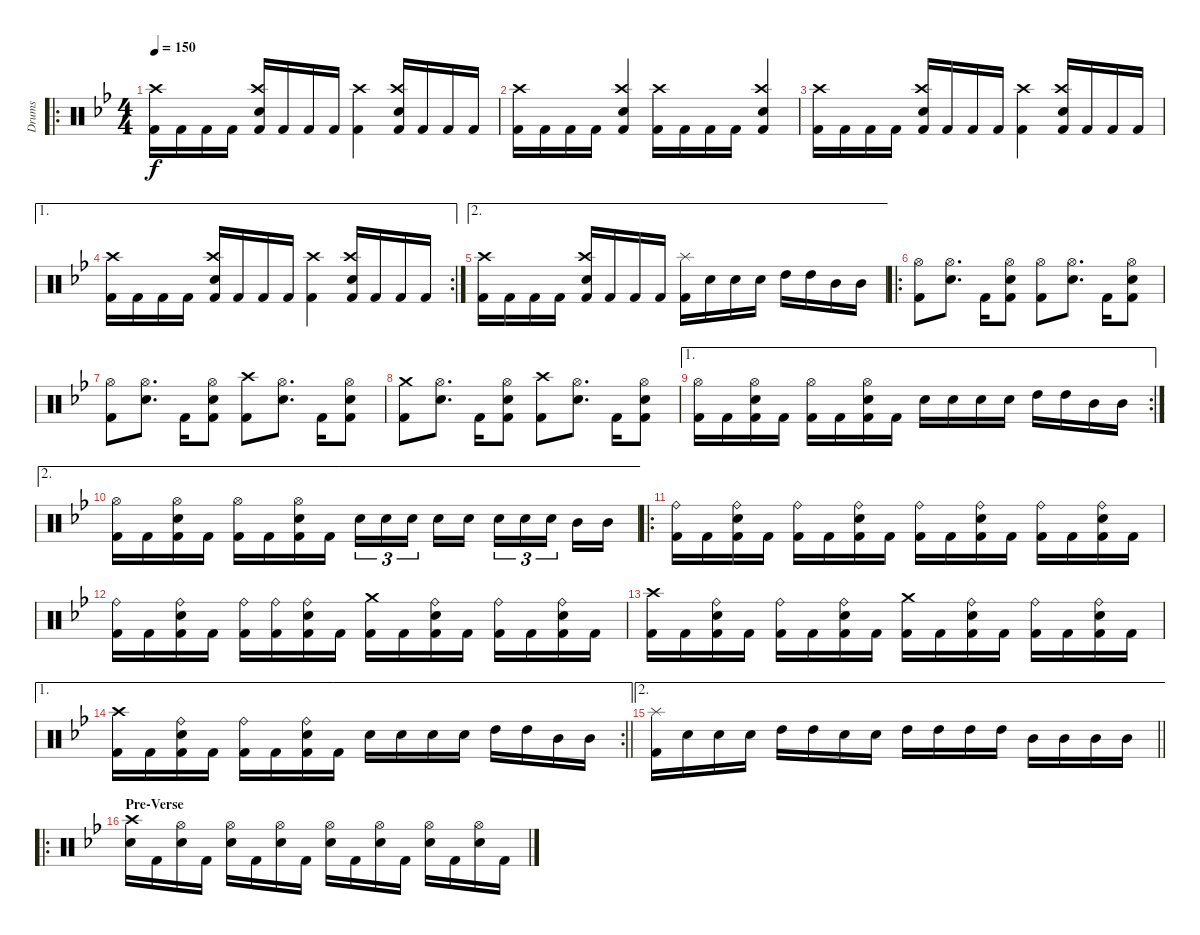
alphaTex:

\track ("Drums" "Drums") {instrument percussion}
\staff {score}
\articulation defaults
\ro
\ts (4 4)
\tempo 150
\clef neutral
\ks gminor
("Kick (hit) 2" "Crash high (hit)").16{dy f} "Kick (hit) 2".16 "Kick (hit) 2".16 "Kick (hit) 2".16 ("Kick (hit) 2" "Snare (hit) 2" "Crash high (hit)").16 "Kick (hit) 2".16 "Kick (hit) 2".16 "Kick (hit) 2".16 ("Kick (hit) 2" "Crash high (hit)").4 ("Kick (hit) 2" "Snare (hit) 2" "Crash high (hit)").16 "Kick (hit) 2".16 "Kick (hit) 2".16 "Kick (hit) 2".16 |
("Kick (hit) 2" "Crash high (hit)").16 "Kick (hit) 2".16 "Kick (hit) 2".16 "Kick (hit) 2".16 ("Kick (hit) 2" "Snare (hit) 2" "Crash high (hit)").4 ("Kick (hit) 2" "Crash high (hit)").16 "Kick (hit) 2".16 "Kick (hit) 2".16 "Kick (hit) 2".16 ("Kick (hit) 2" "Snare (hit) 2" "Crash high (hit)").4 |
("Kick (hit) 2" "Crash high (hit)").16 "Kick (hit) 2".16 "Kick (hit) 2".16 "Kick (hit) 2".16 ("Kick (hit) 2" "Snare (hit) 2" "Crash high (hit)").16 "Kick (hit) 2".16 "Kick (hit) 2".16 "Kick (hit) 2".16 ("Kick (hit) 2" "Crash high (hit)").4 ("Kick (hit) 2" "Snare (hit) 2" "Crash high (hit)").16 "Kick (hit) 2".16 "Kick (hit) 2".16 "Kick (hit) 2".16 |
\ae 1
\rc 2
("Kick (hit) 2" "Crash high (hit)").16 "Kick (hit) 2".16 "Kick (hit) 2".16 "Kick (hit) 2".16 ("Kick (hit) 2" "Snare (hit) 2" "Crash high (hit)").16 "Kick (hit) 2".16 "Kick (hit) 2".16 "Kick (hit) 2".16 ("Kick (hit) 2" "Crash high (hit)").4 ("Kick (hit) 2" "Snare (hit) 2" "Crash high (hit)").16 "Kick (hit) 2".16 "Kick (hit) 2".16 "Kick (hit) 2".16 |
\ae 2
("Kick (hit) 2" "Crash high (hit)").16 "Kick (hit) 2".16 "Kick (hit) 2".16 "Kick (hit) 2".16 ("Kick (hit) 2" "Snare (hit) 2" "Crash high (hit)").16 "Kick (hit) 2".16 "Kick (hit) 2".16 "Kick (hit) 2".16 ("Kick (hit) 2" "Splash (hit)").16 "Snare (hit) 2".16 "Snare (hit) 2".16 "Snare (hit) 2".16 "High Tom (hit)".16 "High Tom (hit)".16 "Mid Tom (hit)".16 "Mid Tom (hit)".16 |
\ro
("Kick (hit) 2" "Hi-Hat (open)").8 ("Snare (hit) 2" "Hi-Hat (open)").8{d} "Kick (hit) 2".16 ("Kick (hit) 2" "Snare (hit) 2" "Hi-Hat (open)").8 ("Kick (hit) 2" "Hi-Hat (open)").8 ("Snare (hit) 2" "Hi-Hat (open)").8{d} "Kick (hit) 2".16 ("Kick (hit) 2" "Snare (hit) 2" "Hi-Hat (open)").8 |
("Kick (hit) 2" "Hi-Hat (open)").8 ("Snare (hit) 2" "Hi-Hat (open)").8{d} "Kick (hit) 2".16 ("Kick (hit) 2" "Snare (hit) 2" "Hi-Hat (open)").8 ("Kick (hit) 2" "Crash high (hit)").8 ("Snare (hit) 2" "Hi-Hat (open)").8{d} "Kick (hit) 2".16 ("Kick (hit) 2" "Snare (hit) 2" "Hi-Hat (open)").8 |
("Kick (hit) 2" "Crash medium (hit)").8 ("Snare (hit) 2" "Hi-Hat (open)").8{d} "Kick (hit) 2".16 ("Kick (hit) 2" "Snare (hit) 2" "Hi-Hat (open)").8 ("Kick (hit) 2" "Crash high (hit)").8 ("Snare (hit) 2" "Hi-Hat (open)").8{d} "Kick (hit) 2".16 ("Kick (hit) 2" "Snare (hit) 2" "Hi-Hat (open)").8 |
\ae 1
\rc 2
("Kick (hit) 2" "Hi-Hat (open)").16 "Kick (hit) 2".16 ("Kick (hit) 2" "Snare (hit) 2" "Hi-Hat (open)").16 "Kick (hit) 2".16 ("Kick (hit) 2" "Hi-Hat (open)").16 "Kick (hit) 2".16 ("Kick (hit) 2" "Snare (hit) 2" "Hi-Hat (open)").16 "Kick (hit) 2".16 "Snare (hit) 2".16 "Snare (hit) 2".16 "Snare (hit) 2".16 "Snare (hit) 2".16 "High Tom (hit)".16 "High Tom (hit)".16 "Mid Tom (hit)".16 "Mid Tom (hit)".16 |
\ae 2
("Kick (hit) 2" "Hi-Hat (open)").16 "Kick (hit) 2".16 ("Kick (hit) 2" "Snare (hit) 2" "Hi-Hat (open)").16 "Kick (hit) 2".16 ("Kick (hit) 2" "Hi-Hat (open)").16 "Kick (hit) 2".16 ("Kick (hit) 2" "Snare (hit) 2" "Hi-Hat (open)").16 "Kick (hit) 2".16 "Snare (hit) 2".16{tu (3 2)} "Snare (hit) 2".16{tu (3 2)} "Snare (hit) 2".16{tu (3 2) beam splitsecondary} "Snare (hit) 2".16 "Snare (hit) 2".16 "Snare (hit) 2".16{tu (3 2)} "Snare (hit) 2".16{tu (3 2)} "Snare (hit) 2".16{tu (3 2) beam splitsecondary} "Mid Tom (hit)".16 "Mid Tom (hit)".16 |
\ro
("Kick (hit) 2" "Ride (bell)").16 "Kick (hit) 2".16 ("Kick (hit) 2" "Snare (hit) 2" "Ride (bell)").16 "Kick (hit) 2".16 ("Kick (hit) 2" "Ride (bell)").16 "Kick (hit) 2".16 ("Kick (hit) 2" "Snare (hit) 2" "Ride (bell)").16 "Kick (hit) 2".16 ("Kick (hit) 2" "Ride (bell)").16 "Kick (hit) 2".16 ("Kick (hit) 2" "Snare (hit) 2" "Ride (bell)").16 "Kick (hit) 2".16 ("Kick (hit) 2" "Ride (bell)").16 "Kick (hit) 2".16 ("Kick (hit) 2" "Snare (hit) 2" "Ride (bell)").16 "Kick (hit) 2".16 |
("Kick (hit) 2" "Ride (bell)").16 "Kick (hit) 2".16 ("Kick (hit) 2" "Snare (hit) 2" "Ride (bell)").16 "Kick (hit) 2".16 ("Kick (hit) 2" "Ride (bell)").16 ("Kick (hit) 2" "Ride (bell)").16 ("Kick (hit) 2" "Snare (hit) 2" "Ride (bell)").16 "Kick (hit) 2".16 ("Kick (hit) 2" "Crash medium (hit)").16 "Kick (hit) 2".16 ("Kick (hit) 2" "Snare (hit) 2" "Ride (bell)").16 "Kick (hit) 2".16 ("Kick (hit) 2" "Ride (bell)").16 "Kick (hit) 2".16 ("Kick (hit) 2" "Snare (hit) 2" "Ride (bell)").16 "Kick (hit) 2".16 |
("Kick (hit) 2" "Crash high (hit)").16 "Kick (hit) 2".16 ("Kick (hit) 2" "Snare (hit) 2" "Ride (bell)").16 "Kick (hit) 2".16 ("Kick (hit) 2" "Ride (bell)").16 "Kick (hit) 2".16 ("Kick (hit) 2" "Snare (hit) 2" "Ride (bell)").16 "Kick (hit) 2".16 ("Kick (hit) 2" "Crash medium (hit)").16 "Kick (hit) 2".16 ("Kick (hit) 2" "Snare (hit) 2" "Ride (bell)").16 "Kick (hit) 2".16 ("Kick (hit) 2" "Ride (bell)").16 "Kick (hit) 2".16 ("Kick (hit) 2" "Snare (hit) 2" "Ride (bell)").16 "Kick (hit) 2".16 |
\ae 1
\rc 2
\barLineRight lightlight
("Kick (hit) 2" "Crash high (hit)").16 "Kick (hit) 2".16 ("Kick (hit) 2" "Snare (hit) 2" "Ride (bell)").16 "Kick (hit) 2".16 ("Kick (hit) 2" "Ride (bell)").16 "Kick (hit) 2".16 ("Kick (hit) 2" "Snare (hit) 2" "Ride (bell)").16 "Kick (hit) 2".16 "Snare (hit) 2".16 "Snare (hit) 2".16 "Snare (hit) 2".16 "Snare (hit) 2".16 "High Tom (hit)".16 "High Tom (hit)".16 "Mid Tom (hit)".16 "Mid Tom (hit)".16 |
\ae 2
\barLineRight lightlight
("Kick (hit) 2" "Splash (hit)").16 "Snare (hit) 2".16 "Snare (hit) 2".16 "Snare (hit) 2".16 "High Tom (hit)".16 "High Tom (hit)".16 "Snare (hit) 2".16 "Snare (hit) 2".16 "High Tom (hit)".16 "High Tom (hit)".16 "High Tom (hit)".16 "High Tom (hit)".16 "Mid Tom (hit)".16 "Mid Tom (hit)".16 "Mid Tom (hit)".16 "Mid Tom (hit)".16 |
\ro
\section ("" "Pre-Verse")
("Snare (hit) 2" "Crash high (hit)").16 "Kick (hit) 2".16 ("Snare (hit) 2" "Hi-Hat (open)").16 "Kick (hit) 2".16 ("Snare (hit) 2" "Hi-Hat (open)").16 "Kick (hit) 2".16 ("Snare (hit) 2" "Hi-Hat (open)").16 "Kick (hit) 2".16 ("Snare (hit) 2" "Hi-Hat (open)").16 "Kick (hit) 2".16 ("Snare (hit) 2" "Hi-Hat (open)").16 "Kick (hit) 2".16 ("Snare (hit) 2" "Hi-Hat (open)").16 "Kick (hit) 2".16 ("Snare (hit) 2" "Hi-Hat (open)").16 "Kick (hit) 2".16
